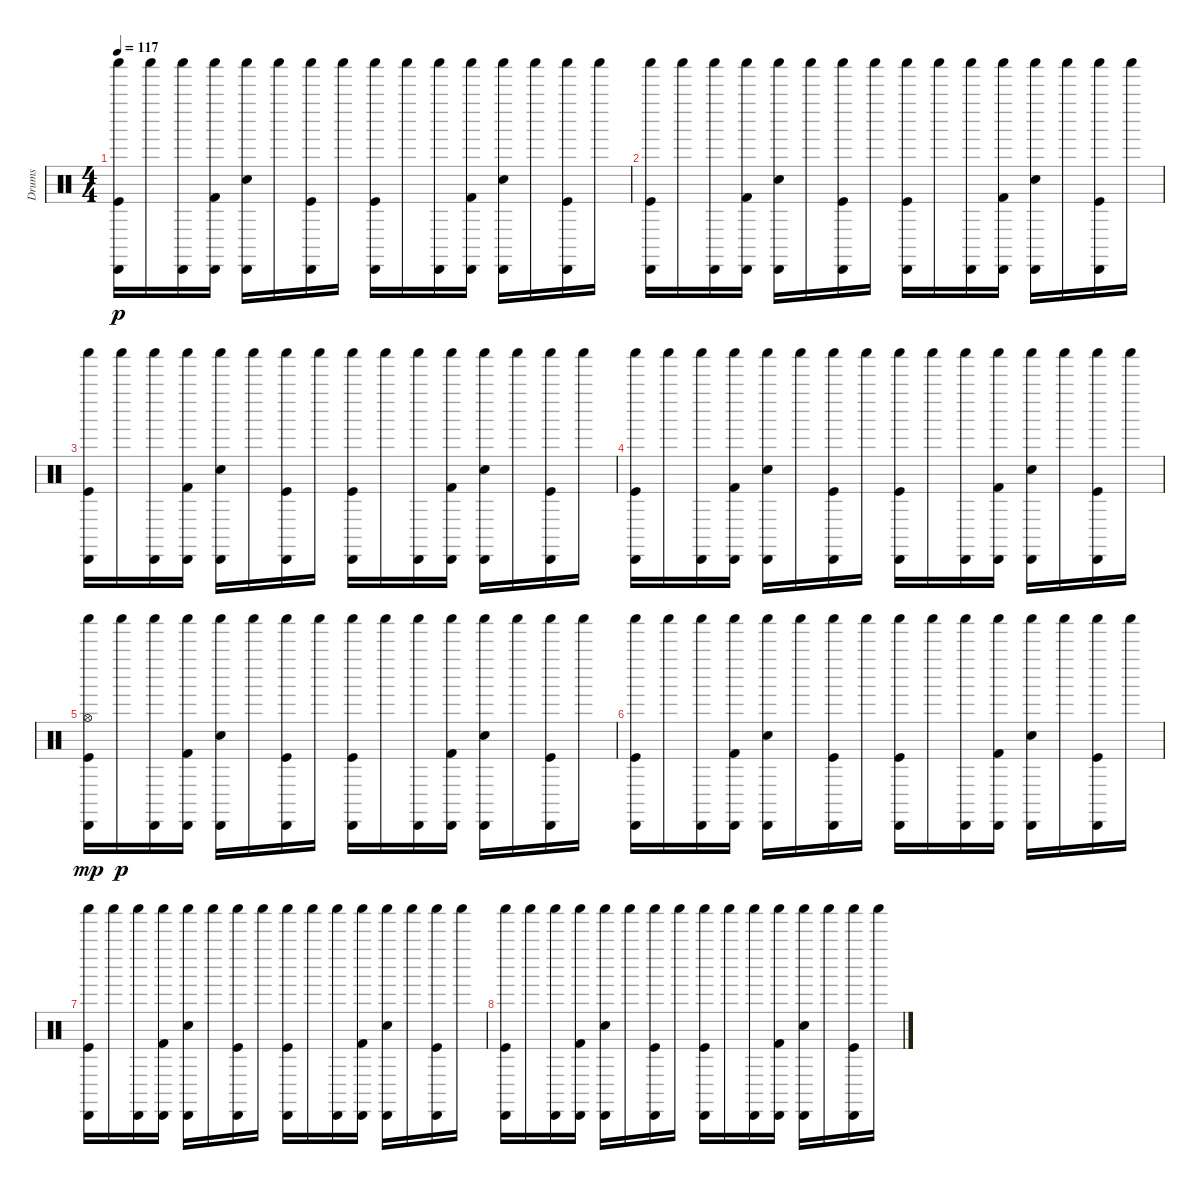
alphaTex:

\track ("Drums" "Drums") {instrument percussion}
\staff {score}
\articulation defaults
\ts (4 4)
\tempo 117
\clef neutral
\ks c
("Kick (hit)" "Shaker (hit)" "Cabasa (hit)").16{dy p} "Shaker (hit)".16 ("Shaker (hit)" "Cabasa (hit)").16 ("Kick (hit) 2" "Shaker (hit)" "Cabasa (hit)").16 ("Snare (hit) 2" "Shaker (hit)" "Cabasa (hit)").16 "Shaker (hit)".16 ("Kick (hit)" "Shaker (hit)" "Cabasa (hit)").16 "Shaker (hit)".16 ("Kick (hit)" "Shaker (hit)" "Cabasa (hit)").16 "Shaker (hit)".16 ("Shaker (hit)" "Cabasa (hit)").16 ("Kick (hit) 2" "Shaker (hit)" "Cabasa (hit)").16 ("Snare (hit) 2" "Shaker (hit)" "Cabasa (hit)").16 "Shaker (hit)".16 ("Kick (hit)" "Shaker (hit)" "Cabasa (hit)").16 "Shaker (hit)".16 |
("Kick (hit)" "Shaker (hit)" "Cabasa (hit)").16 "Shaker (hit)".16 ("Shaker (hit)" "Cabasa (hit)").16 ("Kick (hit) 2" "Shaker (hit)" "Cabasa (hit)").16 ("Snare (hit) 2" "Shaker (hit)" "Cabasa (hit)").16 "Shaker (hit)".16 ("Kick (hit)" "Shaker (hit)" "Cabasa (hit)").16 "Shaker (hit)".16 ("Kick (hit)" "Shaker (hit)" "Cabasa (hit)").16 "Shaker (hit)".16 ("Shaker (hit)" "Cabasa (hit)").16 ("Kick (hit) 2" "Shaker (hit)" "Cabasa (hit)").16 ("Snare (hit) 2" "Shaker (hit)" "Cabasa (hit)").16 "Shaker (hit)".16 ("Kick (hit)" "Shaker (hit)" "Cabasa (hit)").16 "Shaker (hit)".16 |
("Kick (hit)" "Shaker (hit)" "Cabasa (hit)").16 "Shaker (hit)".16 ("Shaker (hit)" "Cabasa (hit)").16 ("Kick (hit) 2" "Shaker (hit)" "Cabasa (hit)").16 ("Snare (hit) 2" "Shaker (hit)" "Cabasa (hit)").16 "Shaker (hit)".16 ("Kick (hit)" "Shaker (hit)" "Cabasa (hit)").16 "Shaker (hit)".16 ("Kick (hit)" "Shaker (hit)" "Cabasa (hit)").16 "Shaker (hit)".16 ("Shaker (hit)" "Cabasa (hit)").16 ("Kick (hit) 2" "Shaker (hit)" "Cabasa (hit)").16 ("Snare (hit) 2" "Shaker (hit)" "Cabasa (hit)").16 "Shaker (hit)".16 ("Kick (hit)" "Shaker (hit)" "Cabasa (hit)").16 "Shaker (hit)".16 |
("Kick (hit)" "Shaker (hit)" "Cabasa (hit)").16 "Shaker (hit)".16 ("Shaker (hit)" "Cabasa (hit)").16 ("Kick (hit) 2" "Shaker (hit)" "Cabasa (hit)").16 ("Snare (hit) 2" "Shaker (hit)" "Cabasa (hit)").16 "Shaker (hit)".16 ("Kick (hit)" "Shaker (hit)" "Cabasa (hit)").16 "Shaker (hit)".16 ("Kick (hit)" "Shaker (hit)" "Cabasa (hit)").16 "Shaker (hit)".16 ("Shaker (hit)" "Cabasa (hit)").16 ("Kick (hit) 2" "Shaker (hit)" "Cabasa (hit)").16 ("Snare (hit) 2" "Shaker (hit)" "Cabasa (hit)").16 "Shaker (hit)".16 ("Kick (hit)" "Shaker (hit)" "Cabasa (hit)").16 "Shaker (hit)".16 |
("Kick (hit)" "Shaker (hit)" "Cabasa (hit)" "Hi-Hat (open)").16{dy mp} "Shaker (hit)".16{dy p} ("Shaker (hit)" "Cabasa (hit)").16 ("Kick (hit) 2" "Shaker (hit)" "Cabasa (hit)").16 ("Snare (hit) 2" "Shaker (hit)" "Cabasa (hit)").16 "Shaker (hit)".16 ("Kick (hit)" "Shaker (hit)" "Cabasa (hit)").16 "Shaker (hit)".16 ("Kick (hit)" "Shaker (hit)" "Cabasa (hit)").16 "Shaker (hit)".16 ("Shaker (hit)" "Cabasa (hit)").16 ("Kick (hit) 2" "Shaker (hit)" "Cabasa (hit)").16 ("Snare (hit) 2" "Shaker (hit)" "Cabasa (hit)").16 "Shaker (hit)".16 ("Kick (hit)" "Shaker (hit)" "Cabasa (hit)").16 "Shaker (hit)".16 |
("Kick (hit)" "Shaker (hit)" "Cabasa (hit)").16 "Shaker (hit)".16 ("Shaker (hit)" "Cabasa (hit)").16 ("Kick (hit) 2" "Shaker (hit)" "Cabasa (hit)").16 ("Snare (hit) 2" "Shaker (hit)" "Cabasa (hit)").16 "Shaker (hit)".16 ("Kick (hit)" "Shaker (hit)" "Cabasa (hit)").16 "Shaker (hit)".16 ("Kick (hit)" "Shaker (hit)" "Cabasa (hit)").16 "Shaker (hit)".16 ("Shaker (hit)" "Cabasa (hit)").16 ("Kick (hit) 2" "Shaker (hit)" "Cabasa (hit)").16 ("Snare (hit) 2" "Shaker (hit)" "Cabasa (hit)").16 "Shaker (hit)".16 ("Kick (hit)" "Shaker (hit)" "Cabasa (hit)").16 "Shaker (hit)".16 |
("Kick (hit)" "Shaker (hit)" "Cabasa (hit)").16 "Shaker (hit)".16 ("Shaker (hit)" "Cabasa (hit)").16 ("Kick (hit) 2" "Shaker (hit)" "Cabasa (hit)").16 ("Snare (hit) 2" "Shaker (hit)" "Cabasa (hit)").16 "Shaker (hit)".16 ("Kick (hit)" "Shaker (hit)" "Cabasa (hit)").16 "Shaker (hit)".16 ("Kick (hit)" "Shaker (hit)" "Cabasa (hit)").16 "Shaker (hit)".16 ("Shaker (hit)" "Cabasa (hit)").16 ("Kick (hit) 2" "Shaker (hit)" "Cabasa (hit)").16 ("Snare (hit) 2" "Shaker (hit)" "Cabasa (hit)").16 "Shaker (hit)".16 ("Kick (hit)" "Shaker (hit)" "Cabasa (hit)").16 "Shaker (hit)".16 |
("Kick (hit)" "Shaker (hit)" "Cabasa (hit)").16 "Shaker (hit)".16 ("Shaker (hit)" "Cabasa (hit)").16 ("Kick (hit) 2" "Shaker (hit)" "Cabasa (hit)").16 ("Snare (hit) 2" "Shaker (hit)" "Cabasa (hit)").16 "Shaker (hit)".16 ("Kick (hit)" "Shaker (hit)" "Cabasa (hit)").16 "Shaker (hit)".16 ("Kick (hit)" "Shaker (hit)" "Cabasa (hit)").16 "Shaker (hit)".16 ("Shaker (hit)" "Cabasa (hit)").16 ("Kick (hit) 2" "Shaker (hit)" "Cabasa (hit)").16 ("Snare (hit) 2" "Shaker (hit)" "Cabasa (hit)").16 "Shaker (hit)".16 ("Kick (hit)" "Shaker (hit)" "Cabasa (hit)").16 "Shaker (hit)".16
